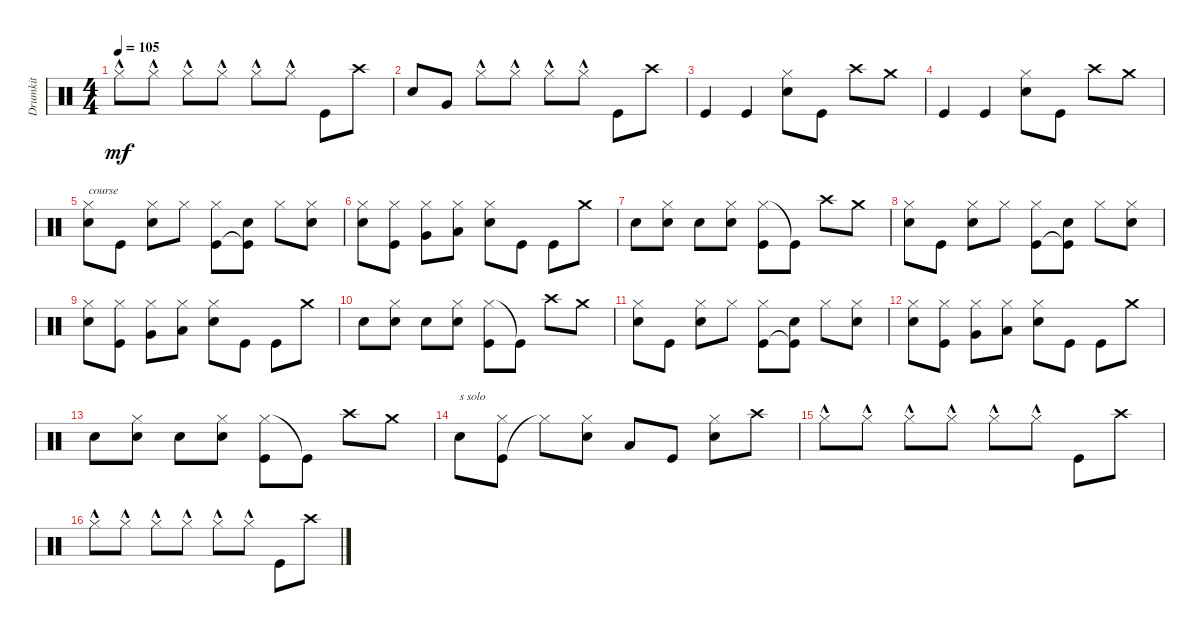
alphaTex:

\track ("Drumkit" "Drumkit") {instrument percussion}
\staff {score}
\articulation defaults
\ts (4 4)
\tempo 105
\clef neutral
\ks c "Hi-Hat (closed)"{hac}.8{dy mf} "Hi-Hat (closed)"{hac}.8 "Hi-Hat (closed)"{hac}.8 "Hi-Hat (closed)"{hac}.8 "Hi-Hat (closed)"{hac}.8 "Hi-Hat (closed)"{hac}.8 "Kick (hit)".8 "Crash high (hit)".8
|
"Snare (hit) 2".8 "Very Low Tom (hit)".8 "Hi-Hat (closed)"{hac}.8 "Hi-Hat (closed)"{hac}.8 "Hi-Hat (closed)"{hac}.8 "Hi-Hat (closed)"{hac}.8 "Kick (hit)".8 "Crash high (hit)".8 |
"Kick (hit)".4 "Kick (hit)".4 ("Snare (hit) 2" "Hi-Hat (closed)").8 "Kick (hit)".8 "Crash high (hit)".8 "Crash medium (hit)".8 |
"Kick (hit)".4 "Kick (hit)".4 ("Snare (hit) 2" "Hi-Hat (closed)").8 "Kick (hit)".8 "Crash high (hit)".8 "Crash medium (hit)".8 |
("Snare (hit) 2" "Hi-Hat (closed)").8{txt "course"} "Kick (hit)".8 ("Hi-Hat (closed)" "Snare (hit) 2").8 "Hi-Hat (closed)".8 ("Kick (hit)" "Hi-Hat (closed)").8 ("Kick (hit)"{t} "Snare (hit) 2").8 "Hi-Hat (closed)".8 ("Hi-Hat (closed)" "Snare (hit) 2").8 |
("Hi-Hat (closed)" "Snare (hit) 2").8 ("Kick (hit)" "Hi-Hat (closed)").8 ("Very Low Tom (hit)" "Hi-Hat (closed)").8 ("Low Tom (hit)" "Hi-Hat (closed)").8 ("Snare (hit) 2" "Hi-Hat (closed)").8 "Kick (hit)".8 "Kick (hit)".8 "Crash medium (hit)".8 |
"Snare (hit) 2".8 ("Snare (hit) 2" "Hi-Hat (closed)").8 "Snare (hit) 2".8 ("Snare (hit) 2" "Hi-Hat (closed)").8 ("Hi-Hat (closed)" "Kick (hit)").8 "Kick (hit)"{t}.8 "Crash high (hit)".8 "Crash medium (hit)".8 |
("Snare (hit) 2" "Hi-Hat (closed)").8 "Kick (hit)".8 ("Hi-Hat (closed)" "Snare (hit) 2").8 "Hi-Hat (closed)".8 ("Kick (hit)" "Hi-Hat (closed)").8 ("Kick (hit)"{t} "Snare (hit) 2").8 "Hi-Hat (closed)".8 ("Hi-Hat (closed)" "Snare (hit) 2").8 |
("Hi-Hat (closed)" "Snare (hit) 2").8 ("Kick (hit)" "Hi-Hat (closed)").8 ("Very Low Tom (hit)" "Hi-Hat (closed)").8 ("Low Tom (hit)" "Hi-Hat (closed)").8 ("Snare (hit) 2" "Hi-Hat (closed)").8 "Kick (hit)".8 "Kick (hit)".8 "Crash medium (hit)".8 |
"Snare (hit) 2".8 ("Snare (hit) 2" "Hi-Hat (closed)").8 "Snare (hit) 2".8 ("Snare (hit) 2" "Hi-Hat (closed)").8 ("Hi-Hat (closed)" "Kick (hit)").8 "Kick (hit)"{t}.8 "Crash high (hit)".8 "Crash medium (hit)".8 |
("Snare (hit) 2" "Hi-Hat (closed)").8 "Kick (hit)".8 ("Hi-Hat (closed)" "Snare (hit) 2").8 "Hi-Hat (closed)".8 ("Kick (hit)" "Hi-Hat (closed)").8 ("Kick (hit)"{t} "Snare (hit) 2").8 "Hi-Hat (closed)".8 ("Hi-Hat (closed)" "Snare (hit) 2").8 |
("Hi-Hat (closed)" "Snare (hit) 2").8 ("Kick (hit)" "Hi-Hat (closed)").8 ("Very Low Tom (hit)" "Hi-Hat (closed)").8 ("Low Tom (hit)" "Hi-Hat (closed)").8 ("Snare (hit) 2" "Hi-Hat (closed)").8 "Kick (hit)".8 "Kick (hit)".8 "Crash medium (hit)".8 |
"Snare (hit) 2".8 ("Snare (hit) 2" "Hi-Hat (closed)").8 "Snare (hit) 2".8 ("Snare (hit) 2" "Hi-Hat (closed)").8 ("Hi-Hat (closed)" "Kick (hit)").8 "Kick (hit)"{t}.8 "Crash high (hit)".8 "Crash medium (hit)".8 |
"Snare (hit) 2".8{txt "s solo"} ("Kick (hit)" "Hi-Hat (closed)").8 "Hi-Hat (closed)"{t}.8 ("Hi-Hat (closed)" "Snare (hit) 2").8 "Low Tom (hit)".8 "Kick (hit)".8 ("Snare (hit) 2" "Hi-Hat (closed)").8 "Crash high (hit)".8 |
"Hi-Hat (closed)"{hac}.8 "Hi-Hat (closed)"{hac}.8 "Hi-Hat (closed)"{hac}.8 "Hi-Hat (closed)"{hac}.8 "Hi-Hat (closed)"{hac}.8 "Hi-Hat (closed)"{hac}.8 "Kick (hit)".8 "Crash high (hit)".8 |
"Hi-Hat (closed)"{hac}.8 "Hi-Hat (closed)"{hac}.8 "Hi-Hat (closed)"{hac}.8 "Hi-Hat (closed)"{hac}.8 "Hi-Hat (closed)"{hac}.8 "Hi-Hat (closed)"{hac}.8 "Kick (hit)".8 "Crash high (hit)".8
